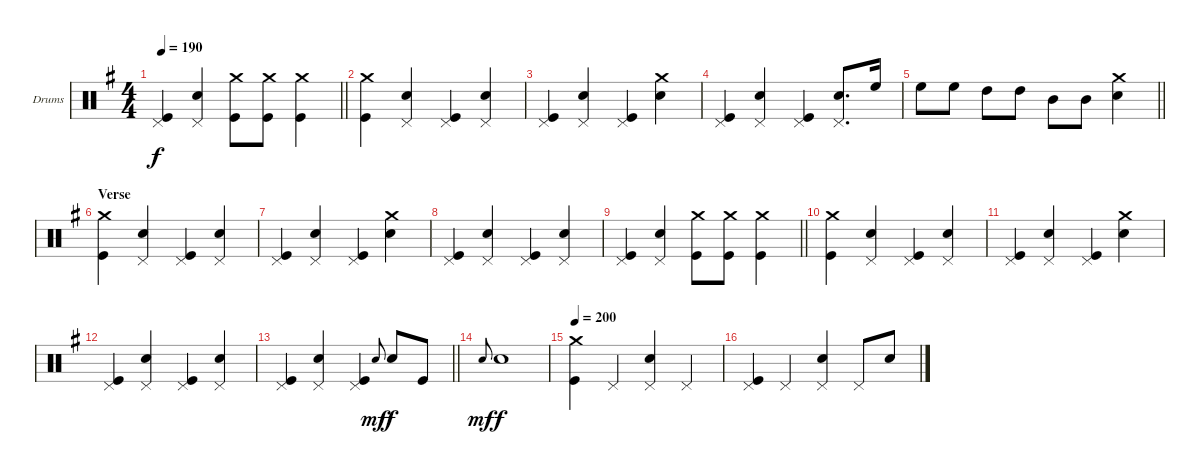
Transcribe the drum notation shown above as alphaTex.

\bracketExtendMode groupsimilarinstruments
\firstSystemTrackNameOrientation horizontal
\otherSystemsTrackNameOrientation horizontal
\track ("Drums" "Drums") {instrument percussion}
\staff {score}
\articulation defaults
\ts (4 4)
\tempo 190
\clef neutral
\barLineRight lightlight
\ks g
("Pedal Hi-Hat (hit)" "Kick (hit)").4{dy f} ("Pedal Hi-Hat (hit)" "Snare (hit) 2").4 ("Crash medium (hit)" "Kick (hit)").8 ("Crash medium (hit)" "Kick (hit)").8 ("Crash medium (hit)" "Kick (hit)").4 |
("Crash medium (hit)" "Kick (hit)").4 ("Pedal Hi-Hat (hit)" "Snare (hit) 2").4 ("Pedal Hi-Hat (hit)" "Kick (hit)").4 ("Pedal Hi-Hat (hit)" "Snare (hit) 2").4 |
("Pedal Hi-Hat (hit)" "Kick (hit)").4 ("Pedal Hi-Hat (hit)" "Snare (hit) 2").4 ("Pedal Hi-Hat (hit)" "Kick (hit)").4 ("Crash medium (hit)" "Snare (hit) 2").4 |
("Pedal Hi-Hat (hit)" "Kick (hit)").4 ("Pedal Hi-Hat (hit)" "Snare (hit) 2").4 ("Pedal Hi-Hat (hit)" "Kick (hit)").4 ("Pedal Hi-Hat (hit)" "Snare (hit) 2").8{d} "High Floor Tom (hit)".16 |
\barLineRight lightlight "High Floor Tom (hit)".8 "High Floor Tom (hit)".8 "High Tom (hit)".8 "High Tom (hit)".8 "Mid Tom (hit)".8 "Mid Tom (hit)".8
("Crash medium (hit)" "Snare (hit) 2").4 |
\section ("" "Verse")
("Crash medium (hit)" "Kick (hit)").4 ("Pedal Hi-Hat (hit)" "Snare (hit) 2").4 ("Pedal Hi-Hat (hit)" "Kick (hit)").4 ("Pedal Hi-Hat (hit)" "Snare (hit) 2").4 |
("Pedal Hi-Hat (hit)" "Kick (hit)").4 ("Pedal Hi-Hat (hit)" "Snare (hit) 2").4 ("Pedal Hi-Hat (hit)" "Kick (hit)").4 ("Crash medium (hit)" "Snare (hit) 2").4 |
("Pedal Hi-Hat (hit)" "Kick (hit)").4 ("Pedal Hi-Hat (hit)" "Snare (hit) 2").4 ("Pedal Hi-Hat (hit)" "Kick (hit)").4 ("Pedal Hi-Hat (hit)" "Snare (hit) 2").4 |
\barLineRight lightlight
("Pedal Hi-Hat (hit)" "Kick (hit)").4 ("Pedal Hi-Hat (hit)" "Snare (hit) 2").4 ("Crash medium (hit)" "Kick (hit)").8 ("Crash medium (hit)" "Kick (hit)").8 ("Crash medium (hit)" "Kick (hit)").4 |
("Crash medium (hit)" "Kick (hit)").4 ("Pedal Hi-Hat (hit)" "Snare (hit) 2").4 ("Pedal Hi-Hat (hit)" "Kick (hit)").4 ("Pedal Hi-Hat (hit)" "Snare (hit) 2").4 |
("Pedal Hi-Hat (hit)" "Kick (hit)").4 ("Pedal Hi-Hat (hit)" "Snare (hit) 2").4 ("Pedal Hi-Hat (hit)" "Kick (hit)").4 ("Crash medium (hit)" "Snare (hit) 2").4 |
("Pedal Hi-Hat (hit)" "Kick (hit)").4 ("Pedal Hi-Hat (hit)" "Snare (hit) 2").4 ("Pedal Hi-Hat (hit)" "Kick (hit)").4 ("Pedal Hi-Hat (hit)" "Snare (hit) 2").4 |
\barLineRight lightlight
("Pedal Hi-Hat (hit)" "Kick (hit)").4 ("Pedal Hi-Hat (hit)" "Snare (hit) 2").4 ("Pedal Hi-Hat (hit)" "Kick (hit)").4 "Snare (hit) 2".8{gr onbeat dy mf} "Snare (hit) 2".8{dy f} "Kick (hit)".8 |
"Snare (hit) 2".8{gr onbeat dy mf} "Snare (hit) 2".1{dy f} |
\tempo 200
("Crash medium (hit)" "Kick (hit)").4 "Pedal Hi-Hat (hit)".4 ("Pedal Hi-Hat (hit)" "Snare (hit) 2").4 "Pedal Hi-Hat (hit)".4 |
("Pedal Hi-Hat (hit)" "Kick (hit)").4 "Pedal Hi-Hat (hit)".4 ("Pedal Hi-Hat (hit)" "Snare (hit) 2").4 "Pedal Hi-Hat (hit)".8 "Snare (hit) 2".8
